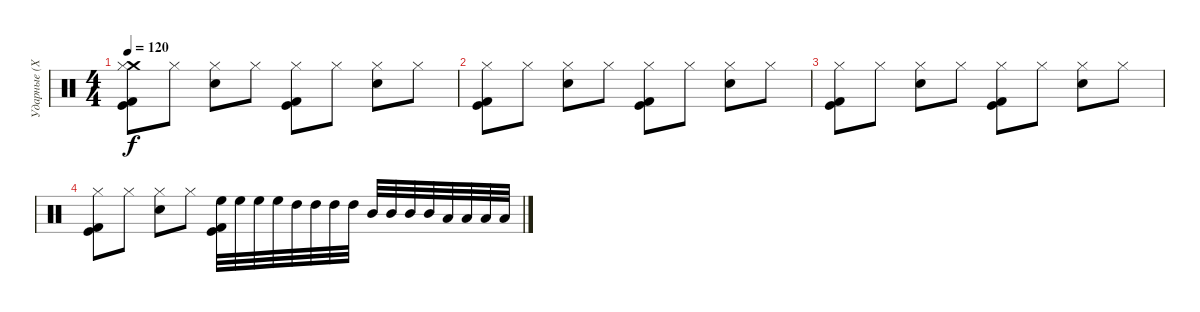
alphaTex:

\track ("Ударные (Хеллхаммер)" "Ударные (Х") {instrument percussion}
\staff {score}
\articulation defaults
\ts (4 4)
\tempo 120
\clef neutral
\ks c
("Crash medium (hit)" "Hi-Hat (closed)" "Kick (hit) 2" "Kick (hit)").8{dy f} "Hi-Hat (closed)".8 ("Hi-Hat (closed)" "Electric Snare (hit)").8 "Hi-Hat (closed)".8 ("Hi-Hat (closed)" "Kick (hit) 2" "Kick (hit)").8 "Hi-Hat (closed)".8 ("Hi-Hat (closed)" "Electric Snare (hit)").8 "Hi-Hat (closed)".8 |
("Hi-Hat (closed)" "Kick (hit) 2" "Kick (hit)").8 "Hi-Hat (closed)".8 ("Hi-Hat (closed)" "Electric Snare (hit)").8 "Hi-Hat (closed)".8 ("Hi-Hat (closed)" "Kick (hit) 2" "Kick (hit)").8 "Hi-Hat (closed)".8 ("Hi-Hat (closed)" "Electric Snare (hit)").8 "Hi-Hat (closed)".8 |
("Hi-Hat (closed)" "Kick (hit) 2" "Kick (hit)").8 "Hi-Hat (closed)".8 ("Hi-Hat (closed)" "Electric Snare (hit)").8 "Hi-Hat (closed)".8 ("Hi-Hat (closed)" "Kick (hit) 2" "Kick (hit)").8 "Hi-Hat (closed)".8 ("Hi-Hat (closed)" "Electric Snare (hit)").8 "Hi-Hat (closed)".8 |
("Hi-Hat (closed)" "Kick (hit) 2" "Kick (hit)").8 "Hi-Hat (closed)".8 ("Hi-Hat (closed)" "Electric Snare (hit)").8 "Hi-Hat (closed)".8 ("High Floor Tom (hit)" "Kick (hit) 2" "Kick (hit)").32 "High Floor Tom (hit)".32 "High Floor Tom (hit)".32 "High Floor Tom (hit)".32 "High Tom (hit)".32 "High Tom (hit)".32 "High Tom (hit)".32 "High Tom (hit)".32 "Mid Tom (hit)".32 "Mid Tom (hit)".32 "Mid Tom (hit)".32 "Mid Tom (hit)".32 "Low Tom (hit)".32 "Low Tom (hit)".32 "Low Tom (hit)".32 "Low Tom (hit)".32
